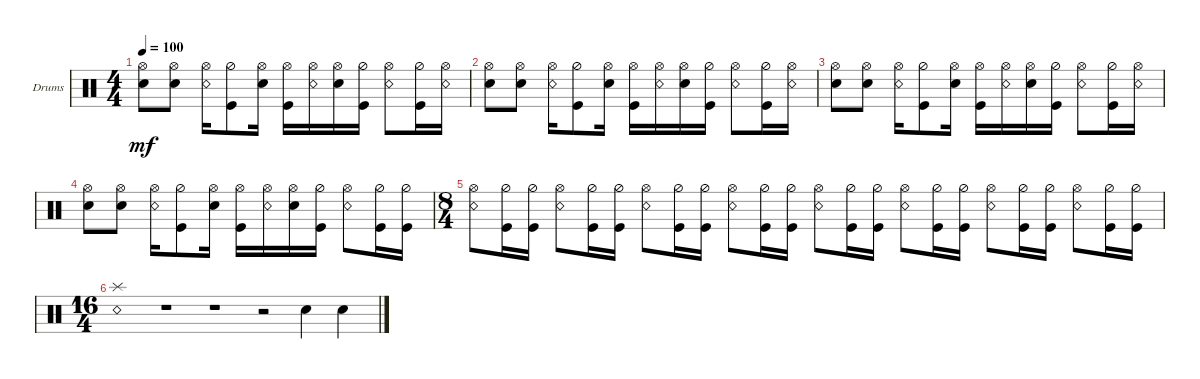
\bracketExtendMode groupsimilarinstruments
\multiBarRest
\firstSystemTrackNameOrientation horizontal
\otherSystemsTrackNameOrientation horizontal
\track ("Rob" "Drums") {instrument percussion}
\staff {score}
\articulation defaults
\ts (4 4)
\tempo 100
\clef neutral
\ks c
("Snare (hit) 2" "Hi-Hat (open)").8{dy mf} ("Snare (hit) 2" "Hi-Hat (open)").8 ("Snare (rim shot)" "Hi-Hat (open)").16 ("Kick (hit)" "Hi-Hat (half)").8 ("Snare (hit) 2" "Hi-Hat (open)").16 ("Kick (hit)" "Hi-Hat (open)").16 ("Snare (rim shot)" "Hi-Hat (open)").16 ("Snare (hit) 2" "Hi-Hat (open)").16 ("Kick (hit)" "Hi-Hat (half)").16 ("Snare (rim shot)" "Hi-Hat (open)").8 ("Kick (hit)" "Hi-Hat (half)").16 ("Snare (rim shot)" "Hi-Hat (open)").16 |
("Snare (hit) 2" "Hi-Hat (open)").8 ("Snare (hit) 2" "Hi-Hat (open)").8 ("Snare (rim shot)" "Hi-Hat (open)").16 ("Kick (hit)" "Hi-Hat (half)").8 ("Snare (hit) 2" "Hi-Hat (open)").16 ("Kick (hit)" "Hi-Hat (open)").16 ("Snare (rim shot)" "Hi-Hat (open)").16 ("Snare (hit) 2" "Hi-Hat (open)").16 ("Kick (hit)" "Hi-Hat (half)").16 ("Snare (rim shot)" "Hi-Hat (open)").8 ("Kick (hit)" "Hi-Hat (half)").16 ("Snare (rim shot)" "Hi-Hat (open)").16 |
("Snare (hit) 2" "Hi-Hat (open)").8 ("Snare (hit) 2" "Hi-Hat (open)").8 ("Snare (rim shot)" "Hi-Hat (open)").16 ("Kick (hit)" "Hi-Hat (half)").8 ("Snare (hit) 2" "Hi-Hat (open)").16 ("Kick (hit)" "Hi-Hat (open)").16 ("Snare (rim shot)" "Hi-Hat (open)").16 ("Snare (hit) 2" "Hi-Hat (open)").16 ("Kick (hit)" "Hi-Hat (half)").16 ("Snare (rim shot)" "Hi-Hat (open)").8 ("Kick (hit)" "Hi-Hat (half)").16 ("Snare (rim shot)" "Hi-Hat (open)").16 |
("Snare (hit) 2" "Hi-Hat (open)").8 ("Snare (hit) 2" "Hi-Hat (open)").8 ("Snare (rim shot)" "Hi-Hat (open)").16 ("Kick (hit)" "Hi-Hat (half)").8 ("Snare (hit) 2" "Hi-Hat (open)").16 ("Kick (hit)" "Hi-Hat (open)").16 ("Snare (rim shot)" "Hi-Hat (open)").16 ("Snare (hit) 2" "Hi-Hat (open)").16 ("Kick (hit)" "Hi-Hat (half)").16 ("Snare (rim shot)" "Hi-Hat (open)").8 ("Kick (hit)" "Hi-Hat (half)").16 ("Hi-Hat (half)" "Kick (hit)").16 |
\ts (8 4)
("Snare (rim shot)" "Hi-Hat (open)").8 ("Kick (hit)" "Hi-Hat (half)").16 ("Kick (hit)" "Hi-Hat (half)").16 ("Snare (rim shot)" "Hi-Hat (open)").8 ("Kick (hit)" "Hi-Hat (half)").16 ("Kick (hit)" "Hi-Hat (half)").16 ("Snare (rim shot)" "Hi-Hat (open)").8 ("Kick (hit)" "Hi-Hat (half)").16 ("Kick (hit)" "Hi-Hat (half)").16 ("Snare (rim shot)" "Hi-Hat (open)").8 ("Kick (hit)" "Hi-Hat (half)").16 ("Kick (hit)" "Hi-Hat (half)").16 ("Snare (rim shot)" "Hi-Hat (open)").8 ("Kick (hit)" "Hi-Hat (half)").16 ("Kick (hit)" "Hi-Hat (half)").16 ("Snare (rim shot)" "Hi-Hat (open)").8 ("Kick (hit)" "Hi-Hat (half)").16 ("Kick (hit)" "Hi-Hat (half)").16 ("Snare (rim shot)" "Hi-Hat (open)").8 ("Kick (hit)" "Hi-Hat (half)").16 ("Kick (hit)" "Hi-Hat (half)").16 ("Snare (rim shot)" "Hi-Hat (open)").8 ("Kick (hit)" "Hi-Hat (half)").16 ("Kick (hit)" "Hi-Hat (half)").16 |
\ts (16 4)
("Snare (rim shot)" "Splash (hit)").1 r.1 r.1 r.2 "Snare (hit) 2".4 "Snare (hit) 2".4
